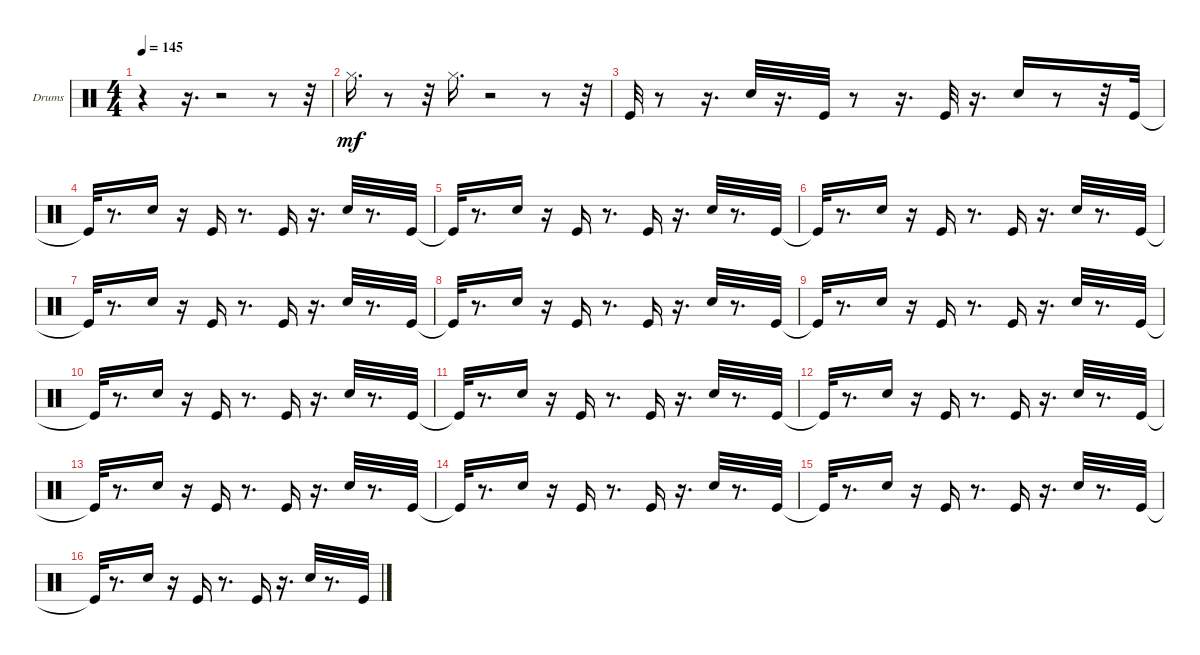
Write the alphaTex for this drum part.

\bracketExtendMode groupsimilarinstruments
\firstSystemTrackNameOrientation horizontal
\otherSystemsTrackNameOrientation horizontal
\track ("Drums" "Drums") {instrument percussion}
\staff {score}
\articulation defaults
\ts (4 4)
\tempo 145
\clef neutral
\ks c
r.4{dy mf} r.16{d} r.2 r.8 r.32 |
"Hi-Hat (closed)".16{d} r.8 r.32 "Hi-Hat (closed)".16{d} r.2 r.8 r.32 |
"Kick (hit)".32 r.8 r.16{d} "Snare (hit) 2".32 r.16{d} "Kick (hit)".32 r.8 r.16{d} "Kick (hit)".32 r.16{d} "Snare (hit) 2".16 r.8 r.32 "Kick (hit)".32 |
"Kick (hit)"{t}.32 r.8{d} "Snare (hit) 2".16 r.16 "Kick (hit)".16 r.8{d} "Kick (hit)".16 r.16{d} "Snare (hit) 2".32 r.8{d} "Kick (hit)".32 |
"Kick (hit)"{t}.32 r.8{d} "Snare (hit) 2".16 r.16 "Kick (hit)".16 r.8{d} "Kick (hit)".16 r.16{d} "Snare (hit) 2".32 r.8{d} "Kick (hit)".32 |
"Kick (hit)"{t}.32 r.8{d} "Snare (hit) 2".16 r.16 "Kick (hit)".16 r.8{d} "Kick (hit)".16 r.16{d} "Snare (hit) 2".32 r.8{d} "Kick (hit)".32 |
"Kick (hit)"{t}.32 r.8{d} "Snare (hit) 2".16 r.16 "Kick (hit)".16 r.8{d} "Kick (hit)".16 r.16{d} "Snare (hit) 2".32 r.8{d} "Kick (hit)".32 |
"Kick (hit)"{t}.32 r.8{d} "Snare (hit) 2".16 r.16 "Kick (hit)".16 r.8{d} "Kick (hit)".16 r.16{d} "Snare (hit) 2".32 r.8{d} "Kick (hit)".32 |
"Kick (hit)"{t}.32 r.8{d} "Snare (hit) 2".16 r.16 "Kick (hit)".16 r.8{d} "Kick (hit)".16 r.16{d} "Snare (hit) 2".32 r.8{d} "Kick (hit)".32 |
"Kick (hit)"{t}.32 r.8{d} "Snare (hit) 2".16 r.16 "Kick (hit)".16 r.8{d} "Kick (hit)".16 r.16{d} "Snare (hit) 2".32 r.8{d} "Kick (hit)".32 |
"Kick (hit)"{t}.32 r.8{d} "Snare (hit) 2".16 r.16 "Kick (hit)".16 r.8{d} "Kick (hit)".16 r.16{d} "Snare (hit) 2".32 r.8{d} "Kick (hit)".32 |
"Kick (hit)"{t}.32 r.8{d} "Snare (hit) 2".16 r.16 "Kick (hit)".16 r.8{d} "Kick (hit)".16 r.16{d} "Snare (hit) 2".32 r.8{d} "Kick (hit)".32 |
"Kick (hit)"{t}.32 r.8{d} "Snare (hit) 2".16 r.16 "Kick (hit)".16 r.8{d} "Kick (hit)".16 r.16{d} "Snare (hit) 2".32 r.8{d} "Kick (hit)".32 |
"Kick (hit)"{t}.32 r.8{d} "Snare (hit) 2".16 r.16 "Kick (hit)".16 r.8{d} "Kick (hit)".16 r.16{d} "Snare (hit) 2".32 r.8{d} "Kick (hit)".32 |
"Kick (hit)"{t}.32 r.8{d} "Snare (hit) 2".16 r.16 "Kick (hit)".16 r.8{d} "Kick (hit)".16 r.16{d} "Snare (hit) 2".32 r.8{d} "Kick (hit)".32 |
"Kick (hit)"{t}.32 r.8{d} "Snare (hit) 2".16 r.16 "Kick (hit)".16 r.8{d} "Kick (hit)".16 r.16{d} "Snare (hit) 2".32 r.8{d} "Kick (hit)".32
